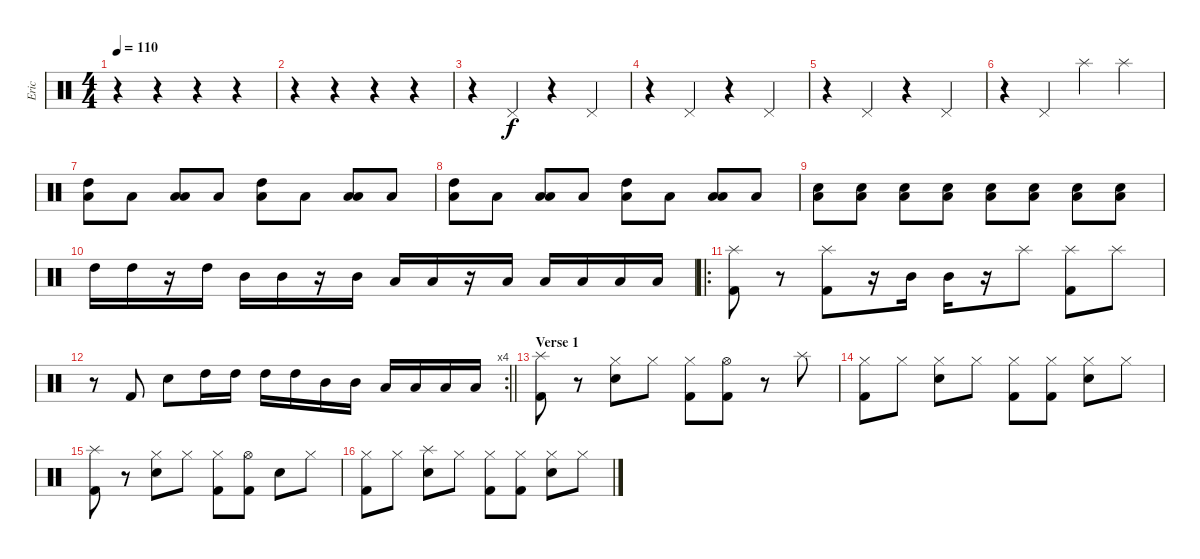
\track ("Eric" "Eric") {instrument percussion}
\staff {score}
\articulation defaults
\ts (4 4)
\tempo 110
\clef neutral
\ks c
r.4{dy f} r.4 r.4 r.4 |
r.4 r.4 r.4 r.4 |
r.4 "Pedal Hi-Hat (hit)".4 r.4 "Pedal Hi-Hat (hit)".4 |
r.4 "Pedal Hi-Hat (hit)".4 r.4 "Pedal Hi-Hat (hit)".4 |
r.4 "Pedal Hi-Hat (hit)".4 r.4 "Pedal Hi-Hat (hit)".4 |
r.4 "Pedal Hi-Hat (hit)".4 "Splash (hit)".4 "Splash (hit)".4 |
("Low Floor Tom (hit)" "High Tom (hit)").8 "Low Floor Tom (hit)".8 ("Low Floor Tom (hit)" "Low Tom (hit)").8 "Low Floor Tom (hit)".8 ("Low Floor Tom (hit)" "High Tom (hit)").8 "Low Floor Tom (hit)".8 ("Low Floor Tom (hit)" "Low Tom (hit)").8 "Low Floor Tom (hit)".8 |
("Low Floor Tom (hit)" "High Tom (hit)").8 "Low Floor Tom (hit)".8 ("Low Floor Tom (hit)" "Low Tom (hit)").8 "Low Floor Tom (hit)".8 ("Low Floor Tom (hit)" "High Tom (hit)").8 "Low Floor Tom (hit)".8 ("Low Floor Tom (hit)" "Low Tom (hit)").8 "Low Floor Tom (hit)".8 |
("Low Floor Tom (hit)" "Snare (hit) 2").8 ("Low Floor Tom (hit)" "Snare (hit) 2").8 ("Low Floor Tom (hit)" "Snare (hit) 2").8 ("Low Floor Tom (hit)" "Snare (hit) 2").8 ("Low Floor Tom (hit)" "Snare (hit) 2").8 ("Low Floor Tom (hit)" "Snare (hit) 2").8 ("Low Floor Tom (hit)" "Snare (hit) 2").8 ("Low Floor Tom (hit)" "Snare (hit) 2").8 |
"High Tom (hit)".16 "High Tom (hit)".16 r.16 "High Tom (hit)".16 "Mid Tom (hit)".16 "Mid Tom (hit)".16 r.16 "Mid Tom (hit)".16 "Low Tom (hit)".16 "Low Tom (hit)".16 r.16 "Low Tom (hit)".16 "Low Floor Tom (hit)".16 "Low Floor Tom (hit)".16 "Low Floor Tom (hit)".16 "Low Floor Tom (hit)".16 |
\ro
("Splash (hit)" "Kick (hit) 2").8 r.8 ("Splash (hit)" "Kick (hit) 2").8 r.16 "Mid Tom (hit)".16 "Mid Tom (hit)".16 r.16 "Splash (hit)".8 ("Splash (hit)" "Kick (hit) 2").8 "Splash (hit)".8 |
\rc 4
\barLineRight lightlight
r.8 "Kick (hit) 2".8 "Snare (hit) 2".8 "High Tom (hit)".16 "High Tom (hit)".16 "High Tom (hit)".16 "High Tom (hit)".16 "Mid Tom (hit)".16 "Mid Tom (hit)".16 "Low Tom (hit)".16 "Low Tom (hit)".16 "Low Floor Tom (hit)".16 "Low Floor Tom (hit)".16 |
\section ("" "Verse 1")
("Splash (hit)" "Kick (hit) 2").8 r.8 ("Hi-Hat (closed)" "Snare (hit) 2").8 "Hi-Hat (closed)".8 ("Hi-Hat (closed)" "Kick (hit) 2").8 ("Hi-Hat (open)" "Kick (hit) 2").8 r.8 "Splash (hit)".8 |
("Hi-Hat (closed)" "Kick (hit) 2").8 "Hi-Hat (closed)".8 ("Hi-Hat (closed)" "Snare (hit) 2").8 "Hi-Hat (closed)".8 ("Hi-Hat (closed)" "Kick (hit) 2").8 ("Hi-Hat (closed)" "Kick (hit) 2").8 ("Hi-Hat (closed)" "Snare (hit) 2").8 "Hi-Hat (closed)".8 |
("Splash (hit)" "Kick (hit) 2").8 r.8 ("Hi-Hat (closed)" "Snare (hit) 2").8 "Hi-Hat (closed)".8 ("Hi-Hat (closed)" "Kick (hit) 2").8 ("Hi-Hat (open)" "Kick (hit) 2").8 "Snare (hit) 2".8 "Hi-Hat (closed)".8 |
("Hi-Hat (closed)" "Kick (hit) 2").8 "Hi-Hat (closed)".8 ("Splash (hit)" "Snare (hit) 2").8 "Hi-Hat (closed)".8 ("Hi-Hat (closed)" "Kick (hit) 2").8 ("Hi-Hat (closed)" "Kick (hit) 2").8 ("Hi-Hat (closed)" "Snare (hit) 2").8 "Hi-Hat (closed)".8
